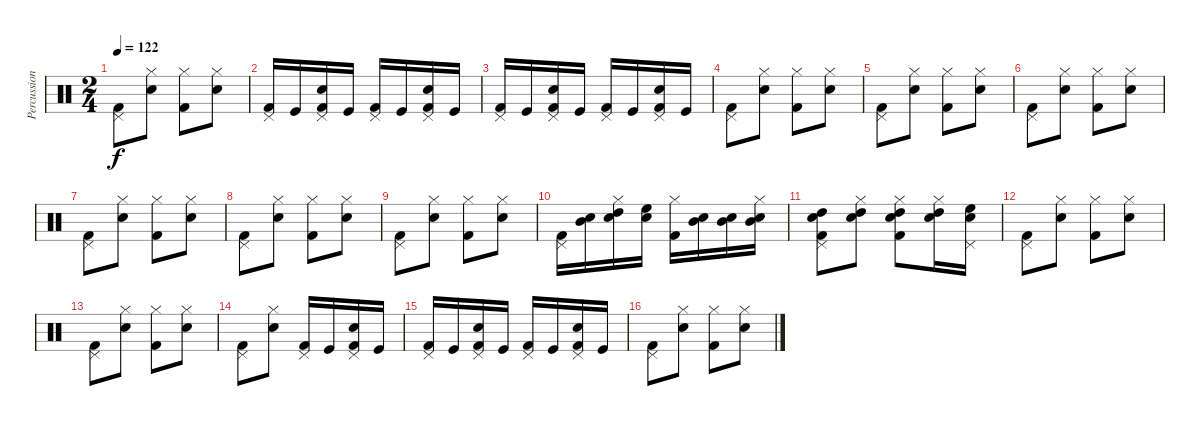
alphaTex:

\track ("Percussions" "Percussion") {instrument percussion}
\staff {score}
\articulation defaults
\ts (2 4)
\tempo 122
\clef neutral
\ks c
("Pedal Hi-Hat (hit)" "Kick (hit) 2").8{dy f} ("Hi-Hat (closed)" "Snare (hit) 2").8 ("Hi-Hat (closed)" "Kick (hit) 2").8 ("Hi-Hat (closed)" "Snare (hit) 2").8 |
("Pedal Hi-Hat (hit)" "Kick (hit) 2").16 "Kick (hit)".16 ("Pedal Hi-Hat (hit)" "Snare (hit) 2" "Kick (hit) 2").16 "Kick (hit)".16 ("Pedal Hi-Hat (hit)" "Kick (hit) 2").16 "Kick (hit)".16 ("Pedal Hi-Hat (hit)" "Snare (hit) 2" "Kick (hit) 2").16 "Kick (hit)".16 |
("Pedal Hi-Hat (hit)" "Kick (hit) 2").16 "Kick (hit)".16 ("Pedal Hi-Hat (hit)" "Snare (hit) 2" "Kick (hit) 2").16 "Kick (hit)".16 ("Pedal Hi-Hat (hit)" "Kick (hit) 2").16 "Kick (hit)".16 ("Pedal Hi-Hat (hit)" "Snare (hit) 2" "Kick (hit) 2").16 "Kick (hit)".16 |
("Pedal Hi-Hat (hit)" "Kick (hit) 2").8 ("Hi-Hat (closed)" "Snare (hit) 2").8 ("Hi-Hat (closed)" "Kick (hit) 2").8 ("Hi-Hat (closed)" "Snare (hit) 2").8 |
("Pedal Hi-Hat (hit)" "Kick (hit) 2").8 ("Hi-Hat (closed)" "Snare (hit) 2").8 ("Hi-Hat (closed)" "Kick (hit) 2").8 ("Hi-Hat (closed)" "Snare (hit) 2").8 |
("Pedal Hi-Hat (hit)" "Kick (hit) 2").8 ("Hi-Hat (closed)" "Snare (hit) 2").8 ("Hi-Hat (closed)" "Kick (hit) 2").8 ("Hi-Hat (closed)" "Snare (hit) 2").8 |
("Pedal Hi-Hat (hit)" "Kick (hit) 2").8 ("Hi-Hat (closed)" "Snare (hit) 2").8 ("Hi-Hat (closed)" "Kick (hit) 2").8 ("Hi-Hat (closed)" "Snare (hit) 2").8 |
("Pedal Hi-Hat (hit)" "Kick (hit) 2").8 ("Hi-Hat (closed)" "Snare (hit) 2").8 ("Hi-Hat (closed)" "Kick (hit) 2").8 ("Hi-Hat (closed)" "Snare (hit) 2").8 |
("Pedal Hi-Hat (hit)" "Kick (hit) 2").8 ("Hi-Hat (closed)" "Snare (hit) 2").8 ("Hi-Hat (closed)" "Kick (hit) 2").8 ("Hi-Hat (closed)" "Snare (hit) 2").8 |
("Pedal Hi-Hat (hit)" "Kick (hit) 2").16 ("Mid Tom (hit)" "Snare (hit) 2").16 ("Hi-Hat (closed)" "High Tom (hit)" "Snare (hit) 2").16 ("High Floor Tom (hit)" "Snare (hit) 2").16 ("Hi-Hat (closed)" "Kick (hit) 2").16 ("Mid Tom (hit)" "Snare (hit) 2").16 ("Mid Tom (hit)" "Snare (hit) 2").16 ("Hi-Hat (closed)" "Mid Tom (hit)" "Snare (hit) 2").16 |
("Pedal Hi-Hat (hit)" "High Tom (hit)" "Snare (hit) 2" "Kick (hit) 2").8 ("Hi-Hat (closed)" "High Tom (hit)" "Snare (hit) 2").8 ("Hi-Hat (closed)" "High Tom (hit)" "Snare (hit) 2" "Kick (hit) 2").8 ("Hi-Hat (closed)" "High Tom (hit)" "Snare (hit) 2").16 ("Pedal Hi-Hat (hit)" "High Floor Tom (hit)" "Snare (hit) 2").16 |
("Pedal Hi-Hat (hit)" "Kick (hit) 2").8 ("Hi-Hat (closed)" "Snare (hit) 2").8 ("Hi-Hat (closed)" "Kick (hit) 2").8 ("Hi-Hat (closed)" "Snare (hit) 2").8 |
("Pedal Hi-Hat (hit)" "Kick (hit) 2").8 ("Hi-Hat (closed)" "Snare (hit) 2").8 ("Hi-Hat (closed)" "Kick (hit) 2").8 ("Hi-Hat (closed)" "Snare (hit) 2").8 |
("Pedal Hi-Hat (hit)" "Kick (hit) 2").8 ("Hi-Hat (closed)" "Snare (hit) 2").8 ("Pedal Hi-Hat (hit)" "Kick (hit) 2").16 "Kick (hit)".16 ("Pedal Hi-Hat (hit)" "Snare (hit) 2" "Kick (hit) 2").16 "Kick (hit)".16 |
("Pedal Hi-Hat (hit)" "Kick (hit) 2").16 "Kick (hit)".16 ("Pedal Hi-Hat (hit)" "Snare (hit) 2" "Kick (hit) 2").16 "Kick (hit)".16 ("Pedal Hi-Hat (hit)" "Kick (hit) 2").16 "Kick (hit)".16 ("Pedal Hi-Hat (hit)" "Snare (hit) 2" "Kick (hit) 2").16 "Kick (hit)".16 |
("Pedal Hi-Hat (hit)" "Kick (hit) 2").8 ("Hi-Hat (closed)" "Snare (hit) 2").8 ("Hi-Hat (closed)" "Kick (hit) 2").8 ("Hi-Hat (closed)" "Snare (hit) 2").8
